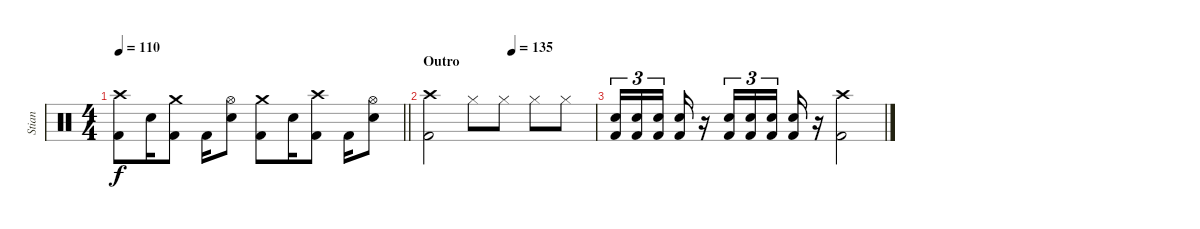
\track ("Stian" "Stian") {instrument percussion}
\staff {score}
\articulation defaults
\ts (4 4)
\tempo 110
\clef neutral
\barLineRight lightlight
\ks c
("Crash high (hit)" "Kick (hit) 2").8{dy f} "Electric Snare (hit)".16 ("Crash medium (hit)" "Kick (hit) 2").8 "Kick (hit) 2".16 ("Hi-Hat (open)" "Electric Snare (hit)").8 ("Crash medium (hit)" "Kick (hit) 2").8 "Electric Snare (hit)".16 ("Crash high (hit)" "Kick (hit) 2").8 "Kick (hit) 2".16 ("Hi-Hat (open)" "Electric Snare (hit)").8 |
\section ("" "Outro")
\tempo (135 0.5)
("Crash high (hit)" "Kick (hit) 2").2 "Hi-Hat (closed)".8 "Hi-Hat (closed)".8 "Hi-Hat (closed)".8 "Hi-Hat (closed)".8 |
("Electric Snare (hit)" "Kick (hit) 2").16{tu (3 2)} ("Electric Snare (hit)" "Kick (hit) 2").16{tu (3 2)} ("Electric Snare (hit)" "Kick (hit) 2").16{tu (3 2) beam splitsecondary} ("Electric Snare (hit)" "Kick (hit) 2").16 r.16 ("Electric Snare (hit)" "Kick (hit) 2").16{tu (3 2)} ("Electric Snare (hit)" "Kick (hit) 2").16{tu (3 2)} ("Electric Snare (hit)" "Kick (hit) 2").16{tu (3 2) beam splitsecondary} ("Electric Snare (hit)" "Kick (hit) 2").16 r.16 ("Crash high (hit)" "Kick (hit) 2").2
